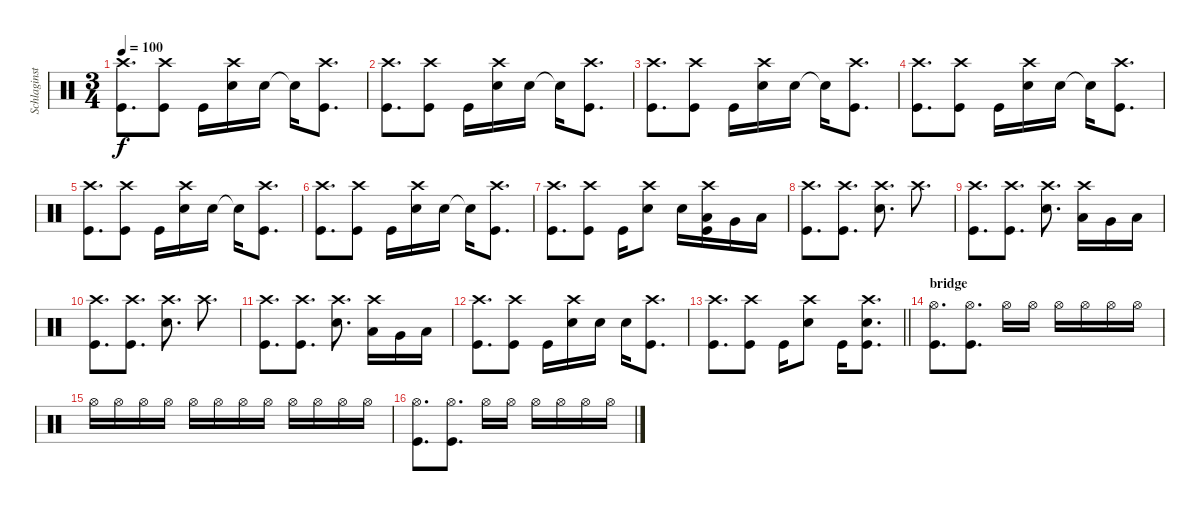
\track ("Schlaginstrumente - Auswahl" "Schlaginst") {instrument percussion}
\staff {score}
\articulation defaults
\ts (3 4)
\tempo 100
\clef neutral
\ks c
("Crash high (hit)" "Kick (hit)").8{d dy f} ("Crash high (hit)" "Kick (hit)").8 "Kick (hit)".16 ("Crash high (hit)" "Snare (hit) 2").16 "Snare (hit) 2".16 "Snare (hit) 2"{t}.16 ("Crash high (hit)" "Kick (hit)").8{d} |
("Crash high (hit)" "Kick (hit)").8{d} ("Crash high (hit)" "Kick (hit)").8 "Kick (hit)".16 ("Crash high (hit)" "Snare (hit) 2").16 "Snare (hit) 2".16 "Snare (hit) 2"{t}.16 ("Crash high (hit)" "Kick (hit)").8{d} |
("Crash high (hit)" "Kick (hit)").8{d} ("Crash high (hit)" "Kick (hit)").8 "Kick (hit)".16 ("Crash high (hit)" "Snare (hit) 2").16 "Snare (hit) 2".16 "Snare (hit) 2"{t}.16 ("Crash high (hit)" "Kick (hit)").8{d} |
("Crash high (hit)" "Kick (hit)").8{d} ("Crash high (hit)" "Kick (hit)").8 "Kick (hit)".16 ("Crash high (hit)" "Snare (hit) 2").16 "Snare (hit) 2".16 "Snare (hit) 2"{t}.16 ("Crash high (hit)" "Kick (hit)").8{d} |
("Crash high (hit)" "Kick (hit)").8{d} ("Crash high (hit)" "Kick (hit)").8 "Kick (hit)".16 ("Crash high (hit)" "Snare (hit) 2").16 "Snare (hit) 2".16 "Snare (hit) 2"{t}.16 ("Crash high (hit)" "Kick (hit)").8{d} |
("Crash high (hit)" "Kick (hit)").8{d} ("Crash high (hit)" "Kick (hit)").8 "Kick (hit)".16 ("Crash high (hit)" "Snare (hit) 2").16 "Snare (hit) 2".16 "Snare (hit) 2"{t}.16 ("Crash high (hit)" "Kick (hit)").8{d} |
("Crash high (hit)" "Kick (hit)").8{d} ("Crash high (hit)" "Kick (hit)").8 "Kick (hit)".16 ("Crash high (hit)" "Snare (hit) 2").8 "Snare (hit) 2".16 ("Crash high (hit)" "Low Tom (hit)" "Kick (hit)").16 "Very Low Tom (hit)".16 "Low Floor Tom (hit)".16 |
("Crash high (hit)" "Kick (hit)").8{d} ("Crash high (hit)" "Kick (hit)").8{d} ("Crash high (hit)" "Snare (hit) 2").8{d} "Crash high (hit)".8{d} |
("Crash high (hit)" "Kick (hit)").8{d} ("Crash high (hit)" "Kick (hit)").8{d} ("Crash high (hit)" "Snare (hit) 2").8{d} ("Crash high (hit)" "Low Floor Tom (hit)").16 "Very Low Tom (hit)".16 "Low Tom (hit)".16 |
("Crash high (hit)" "Kick (hit)").8{d} ("Crash high (hit)" "Kick (hit)").8{d} ("Crash high (hit)" "Snare (hit) 2").8{d} "Crash high (hit)".8{d} |
("Crash high (hit)" "Kick (hit)").8{d} ("Crash high (hit)" "Kick (hit)").8{d} ("Crash high (hit)" "Snare (hit) 2").8{d} ("Crash high (hit)" "Low Floor Tom (hit)").16 "Very Low Tom (hit)".16 "Low Tom (hit)".16 |
("Crash high (hit)" "Kick (hit)").8{d} ("Crash high (hit)" "Kick (hit)").8 "Kick (hit)".16 ("Crash high (hit)" "Snare (hit) 2").16 "Snare (hit) 2".16 "Snare (hit) 2".16 ("Crash high (hit)" "Kick (hit)").8{d} |
\barLineRight lightlight
("Crash high (hit)" "Kick (hit)").8{d} ("Crash high (hit)" "Kick (hit)").8 "Kick (hit)".16 ("Crash high (hit)" "Snare (hit) 2").8 "Kick (hit)".16 ("Crash high (hit)" "Snare (hit) 2" "Kick (hit)").8{d} |
\section ("" "bridge")
("Hi-Hat (open)" "Kick (hit)").8{d} ("Hi-Hat (open)" "Kick (hit)").8{d} "Hi-Hat (open)".16 "Hi-Hat (open)".16 "Hi-Hat (open)".16 "Hi-Hat (open)".16 "Hi-Hat (open)".16 "Hi-Hat (open)".16 |
"Hi-Hat (open)".16 "Hi-Hat (open)".16 "Hi-Hat (open)".16 "Hi-Hat (open)".16 "Hi-Hat (open)".16 "Hi-Hat (open)".16 "Hi-Hat (open)".16 "Hi-Hat (open)".16 "Hi-Hat (open)".16 "Hi-Hat (open)".16 "Hi-Hat (open)".16 "Hi-Hat (open)".16 |
("Hi-Hat (open)" "Kick (hit)").8{d} ("Hi-Hat (open)" "Kick (hit)").8{d} "Hi-Hat (open)".16 "Hi-Hat (open)".16 "Hi-Hat (open)".16 "Hi-Hat (open)".16 "Hi-Hat (open)".16 "Hi-Hat (open)".16
